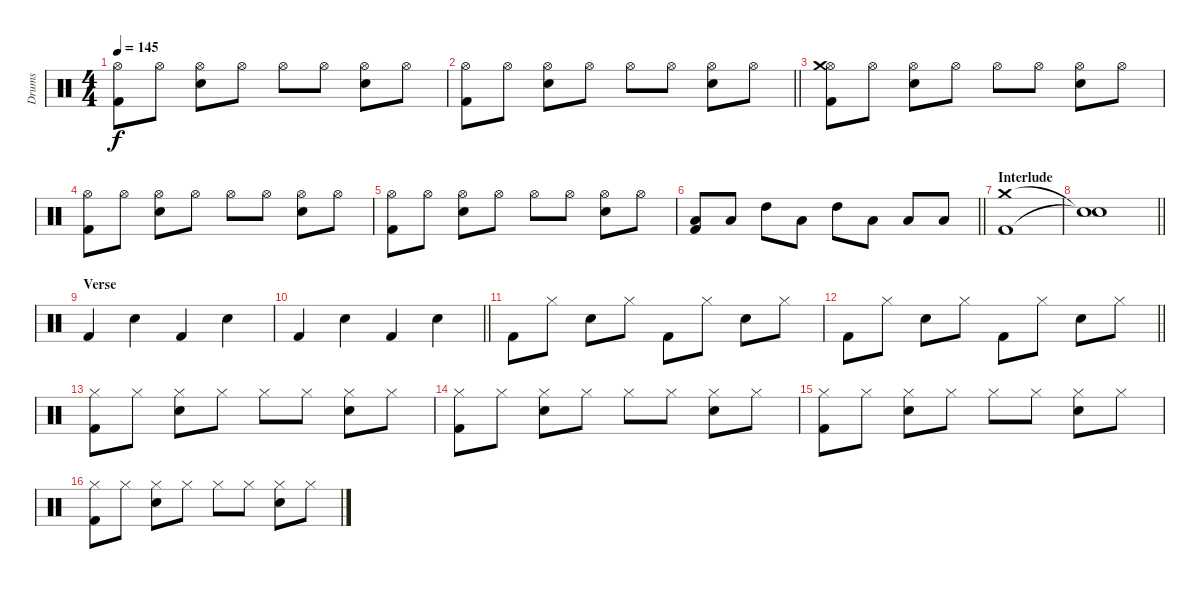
\track ("Drums" "Drums") {instrument percussion}
\staff {score}
\articulation defaults
\ts (4 4)
\tempo 145
\clef neutral
\ks c
("Hi-Hat (open)" "Kick (hit) 2").8{dy f} "Hi-Hat (open)".8 ("Hi-Hat (open)" "Electric Snare (hit)").8 "Hi-Hat (open)".8 "Hi-Hat (open)".8 "Hi-Hat (open)".8 ("Hi-Hat (open)" "Electric Snare (hit)").8 "Hi-Hat (open)".8 |
\barLineRight lightlight
("Hi-Hat (open)" "Kick (hit) 2").8 "Hi-Hat (open)".8 ("Hi-Hat (open)" "Electric Snare (hit)").8 "Hi-Hat (open)".8 "Hi-Hat (open)".8 "Hi-Hat (open)".8 ("Hi-Hat (open)" "Electric Snare (hit)").8 "Hi-Hat (open)".8 |
("Hi-Hat (open)" "Kick (hit) 2" "Crash medium (hit)").8 "Hi-Hat (open)".8 ("Hi-Hat (open)" "Electric Snare (hit)").8 "Hi-Hat (open)".8 "Hi-Hat (open)".8 "Hi-Hat (open)".8 ("Hi-Hat (open)" "Electric Snare (hit)").8 "Hi-Hat (open)".8 |
("Hi-Hat (open)" "Kick (hit) 2").8 "Hi-Hat (open)".8 ("Hi-Hat (open)" "Electric Snare (hit)").8 "Hi-Hat (open)".8 "Hi-Hat (open)".8 "Hi-Hat (open)".8 ("Hi-Hat (open)" "Electric Snare (hit)").8 "Hi-Hat (open)".8 |
("Hi-Hat (open)" "Kick (hit) 2").8 "Hi-Hat (open)".8 ("Hi-Hat (open)" "Electric Snare (hit)").8 "Hi-Hat (open)".8 "Hi-Hat (open)".8 "Hi-Hat (open)".8 ("Hi-Hat (open)" "Electric Snare (hit)").8 "Hi-Hat (open)".8 |
\barLineRight lightlight
("Low Tom (hit)" "Kick (hit) 2").8 "Low Tom (hit)".8 "High Tom (hit)".8 "Low Tom (hit)".8 "High Tom (hit)".8 "Low Tom (hit)".8 "Low Tom (hit)".8 "Low Tom (hit)".8 |
\section ("" "Interlude")
("Crash medium (hit)" "Kick (hit) 2").1 |
\barLineRight lightlight
("Snare (hit)"{t} "Snare (hit)"{t}).1 |
\section ("" "Verse")
"Kick (hit) 2".4 "Electric Snare (hit)".4 "Kick (hit) 2".4 "Electric Snare (hit)".4 |
\barLineRight lightlight "Kick (hit) 2".4 "Electric Snare (hit)".4 "Kick (hit) 2".4 "Electric Snare (hit)".4
|
"Kick (hit) 2".8 "Hi-Hat (closed)".8 "Electric Snare (hit)".8 "Hi-Hat (closed)".8 "Kick (hit) 2".8 "Hi-Hat (closed)".8 "Electric Snare (hit)".8 "Hi-Hat (closed)".8 |
\barLineRight lightlight "Kick (hit) 2".8 "Hi-Hat (closed)".8 "Electric Snare (hit)".8 "Hi-Hat (closed)".8 "Kick (hit) 2".8 "Hi-Hat (closed)".8 "Electric Snare (hit)".8 "Hi-Hat (closed)".8
|
("Hi-Hat (closed)" "Kick (hit) 2").8 "Hi-Hat (closed)".8 ("Hi-Hat (closed)" "Electric Snare (hit)").8 "Hi-Hat (closed)".8 "Hi-Hat (closed)".8 "Hi-Hat (closed)".8 ("Hi-Hat (closed)" "Electric Snare (hit)").8 "Hi-Hat (closed)".8 |
("Hi-Hat (closed)" "Kick (hit) 2").8 "Hi-Hat (closed)".8 ("Hi-Hat (closed)" "Electric Snare (hit)").8 "Hi-Hat (closed)".8 "Hi-Hat (closed)".8 "Hi-Hat (closed)".8 ("Hi-Hat (closed)" "Electric Snare (hit)").8 "Hi-Hat (closed)".8 |
("Hi-Hat (closed)" "Kick (hit) 2").8 "Hi-Hat (closed)".8 ("Hi-Hat (closed)" "Electric Snare (hit)").8 "Hi-Hat (closed)".8 "Hi-Hat (closed)".8 "Hi-Hat (closed)".8 ("Hi-Hat (closed)" "Electric Snare (hit)").8 "Hi-Hat (closed)".8 |
("Hi-Hat (closed)" "Kick (hit) 2").8 "Hi-Hat (closed)".8 ("Hi-Hat (closed)" "Electric Snare (hit)").8 "Hi-Hat (closed)".8 "Hi-Hat (closed)".8 "Hi-Hat (closed)".8 ("Hi-Hat (closed)" "Electric Snare (hit)").8 "Hi-Hat (closed)".8
